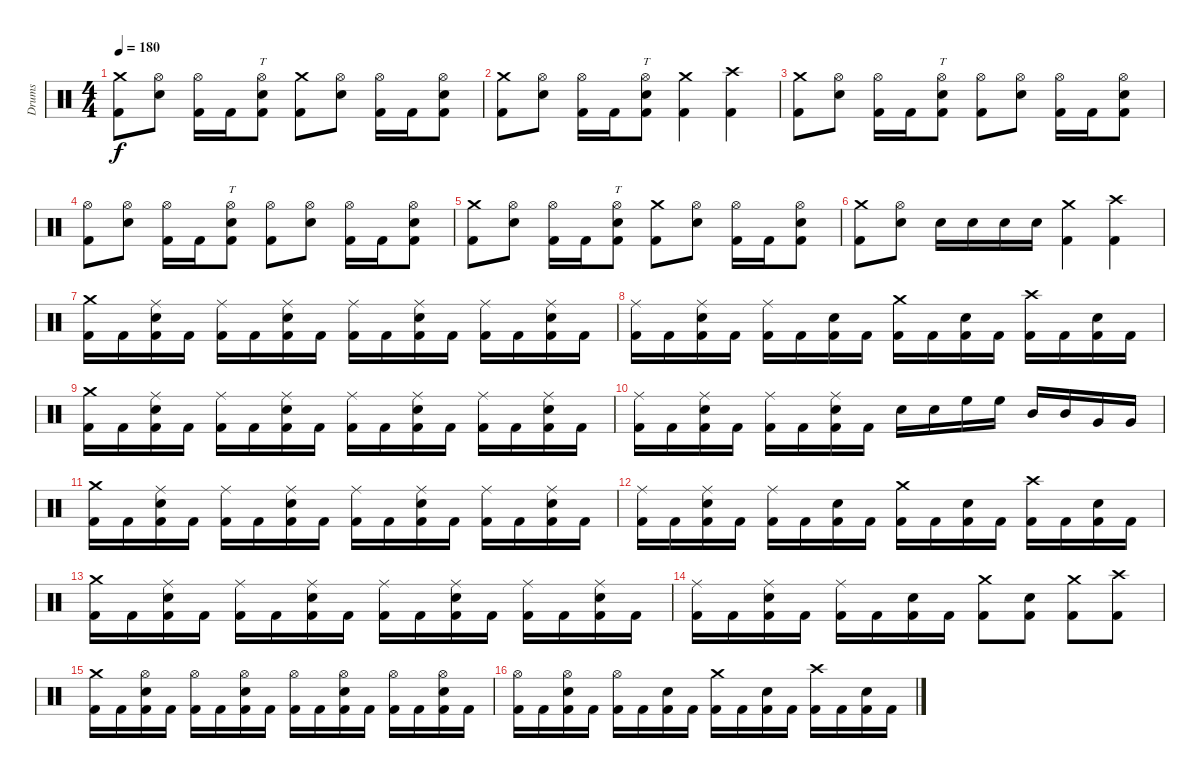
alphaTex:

\track ("Drums" "Drums") {instrument percussion}
\staff {score}
\articulation defaults
\ts (4 4)
\tempo 180
\clef neutral
\ks c
("Crash medium (hit)" "Kick (hit) 2").8{dy f} ("Hi-Hat (open)" "Electric Snare (hit)").8 ("Hi-Hat (open)" "Kick (hit) 2").16 "Kick (hit) 2".16 ("Hi-Hat (open)" "Electric Snare (hit)" "Kick (hit) 2").8{tt} ("Crash medium (hit)" "Kick (hit) 2").8 ("Hi-Hat (open)" "Electric Snare (hit)").8 ("Hi-Hat (open)" "Kick (hit) 2").16 "Kick (hit) 2".16 ("Hi-Hat (open)" "Electric Snare (hit)" "Kick (hit) 2").8 |
("Crash medium (hit)" "Kick (hit) 2").8 ("Hi-Hat (open)" "Electric Snare (hit)").8 ("Hi-Hat (open)" "Kick (hit) 2").16 "Kick (hit) 2".16 ("Hi-Hat (open)" "Electric Snare (hit)" "Kick (hit) 2").8{tt} ("Crash medium (hit)" "Kick (hit) 2").4 ("Crash high (hit)" "Kick (hit) 2").4 |
("Crash medium (hit)" "Kick (hit) 2").8 ("Hi-Hat (open)" "Electric Snare (hit)").8 ("Hi-Hat (open)" "Kick (hit) 2").16 "Kick (hit) 2".16 ("Hi-Hat (open)" "Electric Snare (hit)" "Kick (hit) 2").8{tt} ("Hi-Hat (open)" "Kick (hit) 2").8 ("Hi-Hat (open)" "Electric Snare (hit)").8 ("Hi-Hat (open)" "Kick (hit) 2").16 "Kick (hit) 2".16 ("Hi-Hat (open)" "Electric Snare (hit)" "Kick (hit) 2").8 |
("Hi-Hat (open)" "Kick (hit) 2").8 ("Hi-Hat (open)" "Electric Snare (hit)").8 ("Hi-Hat (open)" "Kick (hit) 2").16 "Kick (hit) 2".16 ("Hi-Hat (open)" "Electric Snare (hit)" "Kick (hit) 2").8{tt} ("Hi-Hat (open)" "Kick (hit) 2").8 ("Hi-Hat (open)" "Electric Snare (hit)").8 ("Hi-Hat (open)" "Kick (hit) 2").16 "Kick (hit) 2".16 ("Hi-Hat (open)" "Electric Snare (hit)" "Kick (hit) 2").8 |
("Crash medium (hit)" "Kick (hit) 2").8 ("Hi-Hat (open)" "Electric Snare (hit)").8 ("Hi-Hat (open)" "Kick (hit) 2").16 "Kick (hit) 2".16 ("Hi-Hat (open)" "Electric Snare (hit)" "Kick (hit) 2").8{tt} ("Crash medium (hit)" "Kick (hit) 2").8 ("Hi-Hat (open)" "Electric Snare (hit)").8 ("Hi-Hat (open)" "Kick (hit) 2").16 "Kick (hit) 2".16 ("Hi-Hat (open)" "Electric Snare (hit)" "Kick (hit) 2").8 |
("Crash medium (hit)" "Kick (hit) 2").8 ("Hi-Hat (open)" "Electric Snare (hit)").8 "Electric Snare (hit)".16 "Electric Snare (hit)".16 "Electric Snare (hit)".16 "Electric Snare (hit)".16 ("Crash medium (hit)" "Kick (hit) 2").4 ("Crash high (hit)" "Kick (hit) 2").4 |
("Crash medium (hit)" "Kick (hit) 2").16 "Kick (hit) 2".16 ("Ride (middle)" "Electric Snare (hit)" "Kick (hit) 2").16 "Kick (hit) 2".16 ("Ride (middle)" "Kick (hit) 2").16 "Kick (hit) 2".16 ("Ride (middle)" "Electric Snare (hit)" "Kick (hit) 2").16 "Kick (hit) 2".16 ("Ride (middle)" "Kick (hit) 2").16 "Kick (hit) 2".16 ("Ride (middle)" "Electric Snare (hit)" "Kick (hit) 2").16 "Kick (hit) 2".16 ("Ride (middle)" "Kick (hit) 2").16 "Kick (hit) 2".16 ("Ride (middle)" "Electric Snare (hit)" "Kick (hit) 2").16 "Kick (hit) 2".16 |
("Ride (middle)" "Kick (hit) 2").16 "Kick (hit) 2".16 ("Ride (middle)" "Electric Snare (hit)" "Kick (hit) 2").16 "Kick (hit) 2".16 ("Ride (middle)" "Kick (hit) 2").16 "Kick (hit) 2".16 ("Electric Snare (hit)" "Kick (hit) 2").16 "Kick (hit) 2".16 ("Crash medium (hit)" "Kick (hit) 2").16 "Kick (hit) 2".16 ("Electric Snare (hit)" "Kick (hit) 2").16 "Kick (hit) 2".16 ("Crash high (hit)" "Kick (hit) 2").16 "Kick (hit) 2".16 ("Electric Snare (hit)" "Kick (hit) 2").16 "Kick (hit) 2".16 |
("Crash medium (hit)" "Kick (hit) 2").16 "Kick (hit) 2".16 ("Ride (middle)" "Electric Snare (hit)" "Kick (hit) 2").16 "Kick (hit) 2".16 ("Ride (middle)" "Kick (hit) 2").16 "Kick (hit) 2".16 ("Ride (middle)" "Electric Snare (hit)" "Kick (hit) 2").16 "Kick (hit) 2".16 ("Ride (middle)" "Kick (hit) 2").16 "Kick (hit) 2".16 ("Ride (middle)" "Electric Snare (hit)" "Kick (hit) 2").16 "Kick (hit) 2".16 ("Ride (middle)" "Kick (hit) 2").16 "Kick (hit) 2".16 ("Ride (middle)" "Electric Snare (hit)" "Kick (hit) 2").16 "Kick (hit) 2".16 |
("Ride (middle)" "Kick (hit) 2").16 "Kick (hit) 2".16 ("Ride (middle)" "Electric Snare (hit)" "Kick (hit) 2").16 "Kick (hit) 2".16 ("Ride (middle)" "Kick (hit) 2").16 "Kick (hit) 2".16 ("Ride (middle)" "Electric Snare (hit)" "Kick (hit) 2").16 "Kick (hit) 2".16 "Electric Snare (hit)".16 "Electric Snare (hit)".16 "High Floor Tom (hit)".16 "High Floor Tom (hit)".16 "Mid Tom (hit)".16 "Mid Tom (hit)".16 "Very Low Tom (hit)".16 "Very Low Tom (hit)".16 |
("Crash medium (hit)" "Kick (hit) 2").16 "Kick (hit) 2".16 ("Ride (middle)" "Electric Snare (hit)" "Kick (hit) 2").16 "Kick (hit) 2".16 ("Ride (middle)" "Kick (hit) 2").16 "Kick (hit) 2".16 ("Ride (middle)" "Electric Snare (hit)" "Kick (hit) 2").16 "Kick (hit) 2".16 ("Ride (middle)" "Kick (hit) 2").16 "Kick (hit) 2".16 ("Ride (middle)" "Electric Snare (hit)" "Kick (hit) 2").16 "Kick (hit) 2".16 ("Ride (middle)" "Kick (hit) 2").16 "Kick (hit) 2".16 ("Ride (middle)" "Electric Snare (hit)" "Kick (hit) 2").16 "Kick (hit) 2".16 |
("Ride (middle)" "Kick (hit) 2").16 "Kick (hit) 2".16 ("Ride (middle)" "Electric Snare (hit)" "Kick (hit) 2").16 "Kick (hit) 2".16 ("Ride (middle)" "Kick (hit) 2").16 "Kick (hit) 2".16 ("Electric Snare (hit)" "Kick (hit) 2").16 "Kick (hit) 2".16 ("Crash medium (hit)" "Kick (hit) 2").16 "Kick (hit) 2".16 ("Electric Snare (hit)" "Kick (hit) 2").16 "Kick (hit) 2".16 ("Crash high (hit)" "Kick (hit) 2").16 "Kick (hit) 2".16 ("Electric Snare (hit)" "Kick (hit) 2").16 "Kick (hit) 2".16 |
("Crash medium (hit)" "Kick (hit) 2").16 "Kick (hit) 2".16 ("Ride (middle)" "Electric Snare (hit)" "Kick (hit) 2").16 "Kick (hit) 2".16 ("Ride (middle)" "Kick (hit) 2").16 "Kick (hit) 2".16 ("Ride (middle)" "Electric Snare (hit)" "Kick (hit) 2").16 "Kick (hit) 2".16 ("Ride (middle)" "Kick (hit) 2").16 "Kick (hit) 2".16 ("Ride (middle)" "Electric Snare (hit)" "Kick (hit) 2").16 "Kick (hit) 2".16 ("Ride (middle)" "Kick (hit) 2").16 "Kick (hit) 2".16 ("Ride (middle)" "Electric Snare (hit)" "Kick (hit) 2").16 "Kick (hit) 2".16 |
("Ride (middle)" "Kick (hit) 2").16 "Kick (hit) 2".16 ("Ride (middle)" "Electric Snare (hit)" "Kick (hit) 2").16 "Kick (hit) 2".16 ("Ride (middle)" "Kick (hit) 2").16 "Kick (hit) 2".16 ("Electric Snare (hit)" "Kick (hit) 2").16 "Kick (hit) 2".16 ("Crash medium (hit)" "Kick (hit) 2").8 ("Electric Snare (hit)" "Kick (hit) 2").8 ("Crash medium (hit)" "Kick (hit) 2").8 ("Crash high (hit)" "Kick (hit) 2").8 |
("Crash medium (hit)" "Kick (hit) 2").16 "Kick (hit) 2".16 ("Hi-Hat (open)" "Electric Snare (hit)" "Kick (hit) 2").16 "Kick (hit) 2".16 ("Hi-Hat (open)" "Kick (hit) 2").16 "Kick (hit) 2".16 ("Hi-Hat (open)" "Electric Snare (hit)" "Kick (hit) 2").16 "Kick (hit) 2".16 ("Hi-Hat (open)" "Kick (hit) 2").16 "Kick (hit) 2".16 ("Hi-Hat (open)" "Electric Snare (hit)" "Kick (hit) 2").16 "Kick (hit) 2".16 ("Hi-Hat (open)" "Kick (hit) 2").16 "Kick (hit) 2".16 ("Hi-Hat (open)" "Electric Snare (hit)" "Kick (hit) 2").16 "Kick (hit) 2".16 |
("Hi-Hat (open)" "Kick (hit) 2").16 "Kick (hit) 2".16 ("Hi-Hat (open)" "Electric Snare (hit)" "Kick (hit) 2").16 "Kick (hit) 2".16 ("Hi-Hat (open)" "Kick (hit) 2").16 "Kick (hit) 2".16 ("Electric Snare (hit)" "Kick (hit) 2").16 "Kick (hit) 2".16 ("Crash medium (hit)" "Kick (hit) 2").16 "Kick (hit) 2".16 ("Electric Snare (hit)" "Kick (hit) 2").16 "Kick (hit) 2".16 ("Crash high (hit)" "Kick (hit) 2").16 "Kick (hit) 2".16 ("Electric Snare (hit)" "Kick (hit) 2").16 "Kick (hit) 2".16
